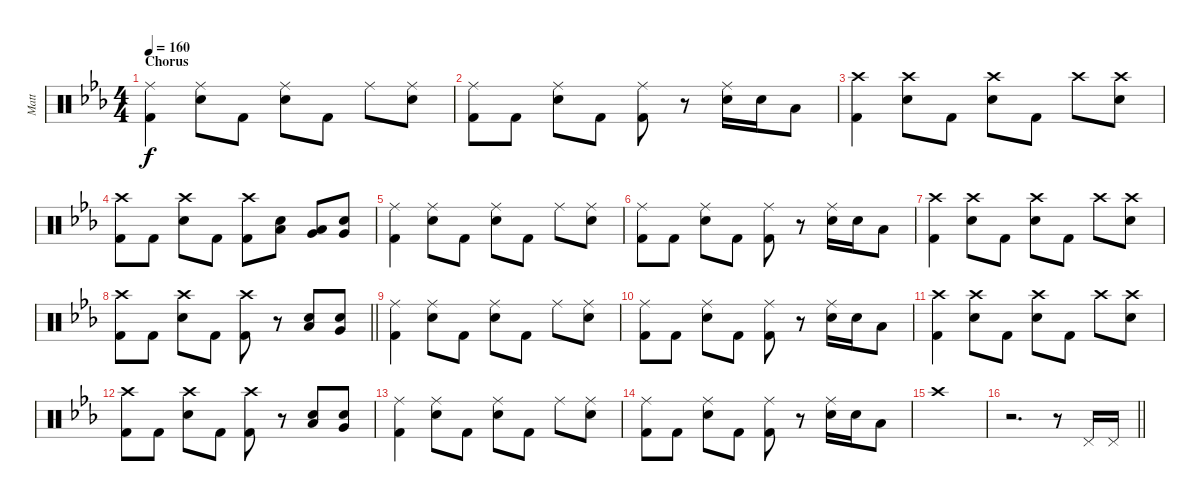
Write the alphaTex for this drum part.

\track ("Matt" "Matt") {instrument percussion}
\staff {score}
\articulation defaults
\ts (4 4)
\section ("" "Chorus")
\tempo 160
\clef neutral
\ks cminor
("Ride (middle)" "Kick (hit) 2").4{dy f} ("Ride (middle)" "Electric Snare (hit)").8 "Kick (hit) 2".8 ("Ride (middle)" "Electric Snare (hit)").8 "Kick (hit) 2".8 "Ride (middle)".8 ("Ride (middle)" "Electric Snare (hit)").8 |
("Ride (middle)" "Kick (hit) 2").8 "Kick (hit) 2".8 ("Ride (middle)" "Electric Snare (hit)").8 "Kick (hit) 2".8 ("Ride (middle)" "Kick (hit) 2").8 r.8 ("Ride (middle)" "Electric Snare (hit)").16 "Electric Snare (hit)".16 "Low Tom (hit)".8 |
("Crash high (hit)" "Kick (hit) 2").4 ("Crash high (hit)" "Electric Snare (hit)").8 "Kick (hit) 2".8 ("Crash high (hit)" "Electric Snare (hit)").8 "Kick (hit) 2".8 "Crash high (hit)".8 ("Crash high (hit)" "Electric Snare (hit)").8 |
("Crash high (hit)" "Kick (hit) 2").8 "Kick (hit) 2".8 ("Crash high (hit)" "Electric Snare (hit)").8 "Kick (hit) 2".8 ("Crash high (hit)" "Kick (hit) 2").8 ("Low Tom (hit)" "Electric Snare (hit)").8 ("Very Low Tom (hit)" "Low Tom (hit)").8 ("Very Low Tom (hit)" "Electric Snare (hit)").8 |
("Ride (middle)" "Kick (hit) 2").4 ("Ride (middle)" "Electric Snare (hit)").8 "Kick (hit) 2".8 ("Ride (middle)" "Electric Snare (hit)").8 "Kick (hit) 2".8 "Ride (middle)".8 ("Ride (middle)" "Electric Snare (hit)").8 |
("Ride (middle)" "Kick (hit) 2").8 "Kick (hit) 2".8 ("Ride (middle)" "Electric Snare (hit)").8 "Kick (hit) 2".8 ("Ride (middle)" "Kick (hit) 2").8 r.8 ("Ride (middle)" "Electric Snare (hit)").16 "Electric Snare (hit)".16 "Low Tom (hit)".8 |
("Crash high (hit)" "Kick (hit) 2").4 ("Crash high (hit)" "Electric Snare (hit)").8 "Kick (hit) 2".8 ("Crash high (hit)" "Electric Snare (hit)").8 "Kick (hit) 2".8 "Crash high (hit)".8 ("Crash high (hit)" "Electric Snare (hit)").8 |
\barLineRight lightlight
("Crash high (hit)" "Kick (hit) 2").8 "Kick (hit) 2".8 ("Crash high (hit)" "Electric Snare (hit)").8 "Kick (hit) 2".8 ("Crash high (hit)" "Kick (hit) 2").8 r.8 ("Low Tom (hit)" "Electric Snare (hit)").8 ("Very Low Tom (hit)" "Electric Snare (hit)").8 |
("Ride (middle)" "Kick (hit) 2").4 ("Ride (middle)" "Electric Snare (hit)").8 "Kick (hit) 2".8 ("Ride (middle)" "Electric Snare (hit)").8 "Kick (hit) 2".8 "Ride (middle)".8 ("Ride (middle)" "Electric Snare (hit)").8 |
("Ride (middle)" "Kick (hit) 2").8 "Kick (hit) 2".8 ("Ride (middle)" "Electric Snare (hit)").8 "Kick (hit) 2".8 ("Ride (middle)" "Kick (hit) 2").8 r.8 ("Ride (middle)" "Electric Snare (hit)").16 "Electric Snare (hit)".16 "Low Tom (hit)".8 |
("Crash high (hit)" "Kick (hit) 2").4 ("Crash high (hit)" "Electric Snare (hit)").8 "Kick (hit) 2".8 ("Crash high (hit)" "Electric Snare (hit)").8 "Kick (hit) 2".8 "Crash high (hit)".8 ("Crash high (hit)" "Electric Snare (hit)").8 |
("Crash high (hit)" "Kick (hit) 2").8 "Kick (hit) 2".8 ("Crash high (hit)" "Electric Snare (hit)").8 "Kick (hit) 2".8 ("Crash high (hit)" "Kick (hit) 2").8 r.8 ("Low Tom (hit)" "Electric Snare (hit)").8 ("Very Low Tom (hit)" "Electric Snare (hit)").8 |
("Ride (middle)" "Kick (hit) 2").4 ("Ride (middle)" "Electric Snare (hit)").8 "Kick (hit) 2".8 ("Ride (middle)" "Electric Snare (hit)").8 "Kick (hit) 2".8 "Ride (middle)".8 ("Ride (middle)" "Electric Snare (hit)").8 |
("Ride (middle)" "Kick (hit) 2").8 "Kick (hit) 2".8 ("Ride (middle)" "Electric Snare (hit)").8 "Kick (hit) 2".8 ("Ride (middle)" "Kick (hit) 2").8 r.8 ("Ride (middle)" "Electric Snare (hit)").16 "Electric Snare (hit)".16 "Low Tom (hit)".8 |
"Crash high (hit)".1 |
\barLineRight lightlight
r.2{d} r.8 "Pedal Hi-Hat (hit)".16 "Pedal Hi-Hat (hit)".16
